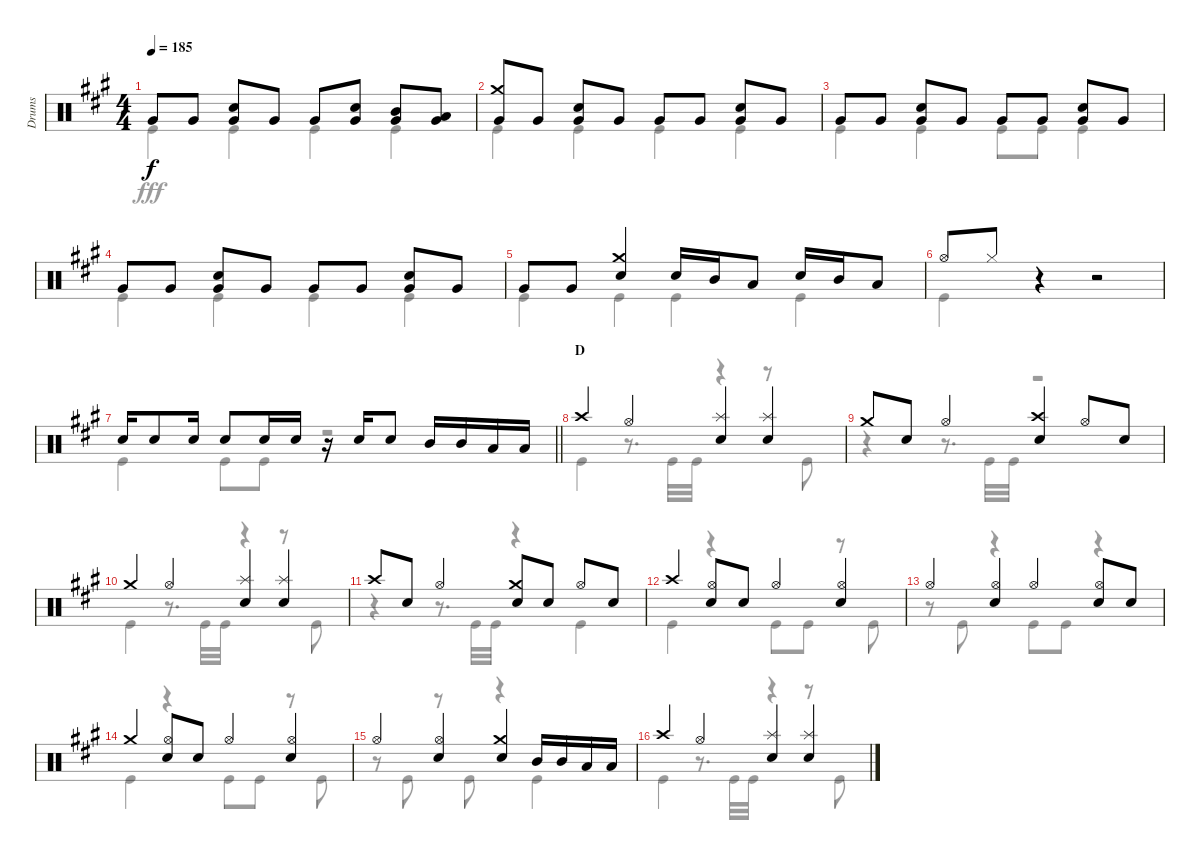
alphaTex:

\track ("Drums" "Drums") {instrument percussion}
\staff {score}
\articulation defaults
\voice
\ts (4 4)
\tempo 185
\clef neutral
\ks a "Very Low Tom (hit)".8{dy f} "Very Low Tom (hit)".8
("Snare (hit) 2" "Very Low Tom (hit)").8 "Very Low Tom (hit)".8 "Very Low Tom (hit)".8 ("Snare (hit) 2" "Very Low Tom (hit)").8 ("Mid Tom (hit)" "Very Low Tom (hit)").8 ("Low Tom (hit)" "Very Low Tom (hit)").8 |
("Crash medium (hit)" "Very Low Tom (hit)").8 "Very Low Tom (hit)".8 ("Snare (hit) 2" "Very Low Tom (hit)").8 "Very Low Tom (hit)".8 "Very Low Tom (hit)".8 "Very Low Tom (hit)".8 ("Snare (hit) 2" "Very Low Tom (hit)").8 "Very Low Tom (hit)".8 |
"Very Low Tom (hit)".8 "Very Low Tom (hit)".8 ("Snare (hit) 2" "Very Low Tom (hit)").8 "Very Low Tom (hit)".8 "Very Low Tom (hit)".8 "Very Low Tom (hit)".8 ("Snare (hit) 2" "Very Low Tom (hit)").8 "Very Low Tom (hit)".8 |
"Very Low Tom (hit)".8 "Very Low Tom (hit)".8 ("Snare (hit) 2" "Very Low Tom (hit)").8 "Very Low Tom (hit)".8 "Very Low Tom (hit)".8 "Very Low Tom (hit)".8 ("Snare (hit) 2" "Very Low Tom (hit)").8 "Very Low Tom (hit)".8 |
"Very Low Tom (hit)".8 "Very Low Tom (hit)".8 ("Crash medium (hit)" "Snare (hit) 2").4 "Snare (hit) 2".16 "Mid Tom (hit)".16 "Low Tom (hit)".8 "Snare (hit) 2".16 "Mid Tom (hit)".16 "Low Tom (hit)".8 |
"Hi-Hat (open)".8 "Hi-Hat (closed)".8 r.4 r.2 |
\barLineRight lightlight "Snare (hit) 2".16 "Snare (hit) 2".8 "Snare (hit) 2".16 "Snare (hit) 2".8 "Snare (hit) 2".16 "Snare (hit) 2".16
r.16 "Snare (hit) 2".16 "Snare (hit) 2".8 "Mid Tom (hit)".16 "Mid Tom (hit)".16 "Low Tom (hit)".16 "Low Tom (hit)".16 |
\section ("" "D")
"Crash high (hit)".4 "Hi-Hat (open)".4 ("Splash (hit)" "Snare (hit) 2").4 ("Splash (hit)" "Snare (hit) 2").4 |
"Crash medium (hit)".8 "Snare (hit) 2".8 "Hi-Hat (open)".4 ("Crash high (hit)" "Snare (hit) 2").4 "Hi-Hat (open)".8 "Snare (hit) 2".8 |
"Crash medium (hit)".4 "Hi-Hat (open)".4 ("Splash (hit)" "Snare (hit) 2").4 ("Splash (hit)" "Snare (hit) 2").4 |
"Crash high (hit)".8 "Snare (hit) 2".8 "Hi-Hat (open)".4 ("Crash medium (hit)" "Snare (hit) 2").8 "Snare (hit) 2".8 "Hi-Hat (open)".8 "Snare (hit) 2".8 |
"Crash high (hit)".4 ("Hi-Hat (open)" "Snare (hit) 2").8 "Snare (hit) 2".8 "Hi-Hat (open)".4 ("Hi-Hat (open)" "Snare (hit) 2").4 |
"Hi-Hat (open)".4 ("Hi-Hat (open)" "Snare (hit) 2").4 "Hi-Hat (open)".4 ("Hi-Hat (open)" "Snare (hit) 2").8 "Snare (hit) 2".8 |
"Crash medium (hit)".4 ("Hi-Hat (open)" "Snare (hit) 2").8 "Snare (hit) 2".8 "Hi-Hat (open)".4 ("Hi-Hat (open)" "Snare (hit) 2").4 |
"Hi-Hat (open)".4 ("Hi-Hat (open)" "Snare (hit) 2").4 ("Crash medium (hit)" "Snare (hit) 2").4 "Mid Tom (hit)".16 "Mid Tom (hit)".16 "Low Tom (hit)".16 "Low Tom (hit)".16 |
"Crash high (hit)".4 "Hi-Hat (open)".4 ("Splash (hit)" "Snare (hit) 2").4 ("Splash (hit)" "Snare (hit) 2").4
\voice
\clef neutral
\ottava regular
\simile none
\ks a "Kick (hit)".4{dy fff} "Kick (hit)".4 "Kick (hit)".4 "Kick (hit)".4
|
"Kick (hit)".4 "Kick (hit)".4 "Kick (hit)".4 "Kick (hit)".4 |
"Kick (hit)".4 "Kick (hit)".4 "Kick (hit)".8 "Kick (hit)".8 "Kick (hit)".4 |
"Kick (hit)".4 "Kick (hit)".4 "Kick (hit)".4 "Kick (hit)".4 |
"Kick (hit)".4 "Kick (hit)".4 "Kick (hit)".4 "Kick (hit)".4 |
"Kick (hit)".4 r.4 r.2 |
\barLineRight lightlight "Kick (hit)".4 "Kick (hit)".8 "Kick (hit)".8
r.2 |
"Kick (hit)".4 r.8{d} "Kick (hit)".32 "Kick (hit)".32 r.4 r.8 "Kick (hit)".8 |
r.4 r.8{d} "Kick (hit)".32 "Kick (hit)".32 r.2 |
"Kick (hit)".4 r.8{d} "Kick (hit)".32 "Kick (hit)".32 r.4 r.8 "Kick (hit)".8 |
r.4 r.8{d} "Kick (hit)".32 "Kick (hit)".32 r.4 "Kick (hit)".4 |
"Kick (hit)".4 r.4 "Kick (hit)".8 "Kick (hit)".8 r.8 "Kick (hit)".8 |
r.8 "Kick (hit)".8 r.4 "Kick (hit)".8 "Kick (hit)".8 r.4 |
"Kick (hit)".4 r.4 "Kick (hit)".8 "Kick (hit)".8 r.8 "Kick (hit)".8 |
r.8 "Kick (hit)".8 r.8 "Kick (hit)".8 r.4 "Kick (hit)".4 |
"Kick (hit)".4 r.8{d} "Kick (hit)".32 "Kick (hit)".32 r.4 r.8 "Kick (hit)".8
